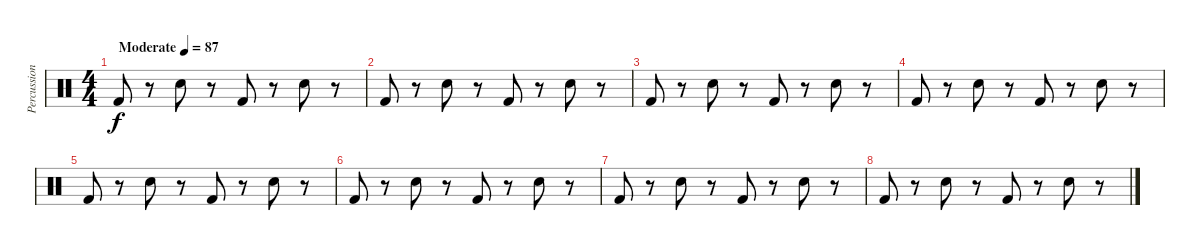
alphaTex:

\track ("Percussion" "Percussion") {instrument percussion}
\staff {score}
\articulation defaults
\ts (4 4)
\tempo (87 "Moderate")
\clef neutral
\ks c "Kick (hit) 2".8{dy f}
r.8 "Electric Snare (hit)".8 r.8 "Kick (hit) 2".8 r.8 "Electric Snare (hit)".8 r.8 |
"Kick (hit) 2".8 r.8 "Electric Snare (hit)".8 r.8 "Kick (hit) 2".8 r.8 "Electric Snare (hit)".8 r.8 |
"Kick (hit) 2".8 r.8 "Electric Snare (hit)".8 r.8 "Kick (hit) 2".8 r.8 "Electric Snare (hit)".8 r.8 |
"Kick (hit) 2".8 r.8 "Electric Snare (hit)".8 r.8 "Kick (hit) 2".8 r.8 "Electric Snare (hit)".8 r.8 |
"Kick (hit) 2".8 r.8 "Electric Snare (hit)".8 r.8 "Kick (hit) 2".8 r.8 "Electric Snare (hit)".8 r.8 |
"Kick (hit) 2".8 r.8 "Electric Snare (hit)".8 r.8 "Kick (hit) 2".8 r.8 "Electric Snare (hit)".8 r.8 |
"Kick (hit) 2".8 r.8 "Electric Snare (hit)".8 r.8 "Kick (hit) 2".8 r.8 "Electric Snare (hit)".8 r.8 |
"Kick (hit) 2".8 r.8 "Electric Snare (hit)".8 r.8 "Kick (hit) 2".8 r.8 "Electric Snare (hit)".8 r.8
